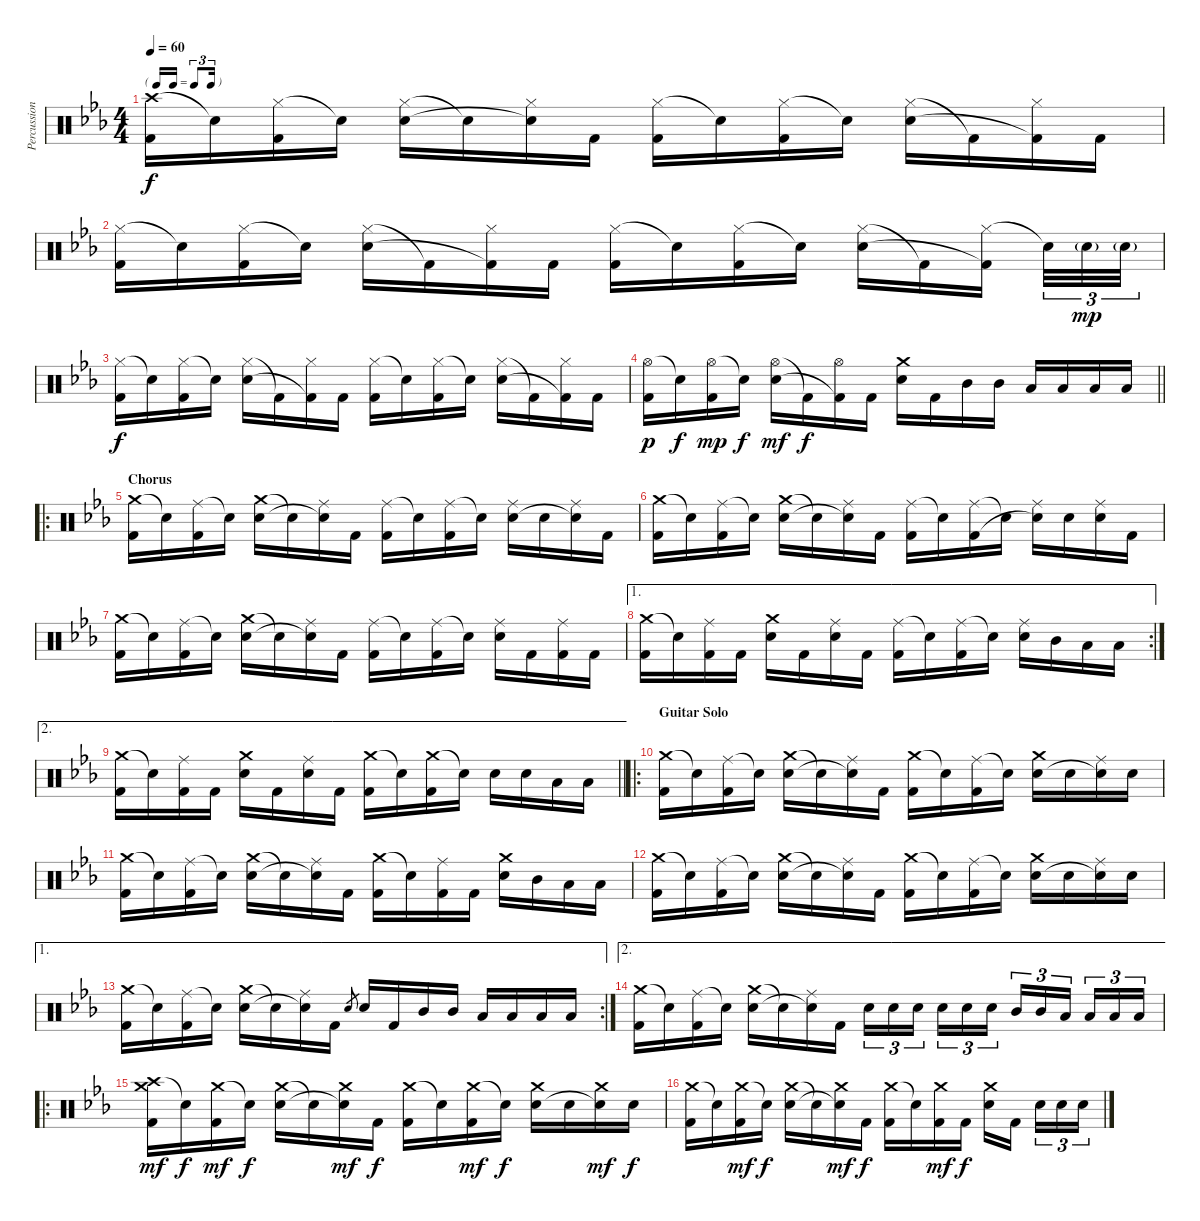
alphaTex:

\track ("Percussioni" "Percussion") {instrument percussion}
\staff {score}
\articulation defaults
\ts (4 4)
\tf triplet16th
\tempo 60
\clef neutral
\ks cminor
("Crash high (hit)" "Kick (hit) 2").16{dy f} "Snare (hit)"{t}.16 ("Hi-Hat (closed)" "Kick (hit) 2").16 "Snare (hit)"{t}.16 ("Hi-Hat (closed)" "Snare (hit) 2").16 "Snare (hit)"{t}.16 ("Hi-Hat (closed)" "Snare (hit)"{t}).16 "Kick (hit) 2".16 ("Hi-Hat (closed)" "Kick (hit) 2").16 "Snare (hit)"{t}.16 ("Hi-Hat (closed)" "Kick (hit) 2").16 "Snare (hit)"{t}.16 ("Hi-Hat (closed)" "Snare (hit) 2").16 "Kick (hit) 2"{t}.16 ("Hi-Hat (closed)" "Kick (hit) 2"{t}).16 "Kick (hit) 2".16 |
("Hi-Hat (closed)" "Kick (hit) 2").16 "Snare (hit)"{t}.16 ("Hi-Hat (closed)" "Kick (hit) 2").16 "Snare (hit)"{t}.16 ("Hi-Hat (closed)" "Snare (hit) 2").16 "Kick (hit) 2"{t}.16 ("Hi-Hat (closed)" "Kick (hit) 2"{t}).16 "Kick (hit) 2".16 ("Hi-Hat (closed)" "Kick (hit) 2").16 "Snare (hit)"{t}.16 ("Hi-Hat (closed)" "Kick (hit) 2").16 "Snare (hit)"{t}.16 ("Hi-Hat (closed)" "Snare (hit) 2").16 "Kick (hit) 2"{t}.16 ("Hi-Hat (closed)" "Kick (hit) 2"{t}).16{beam splitsecondary} "Snare (hit) 2"{t}.32{tu (3 2)} "Snare (hit) 2"{g}.32{tu (3 2) dy mp} "Snare (hit) 2"{g}.32{tu (3 2)} |
("Hi-Hat (closed)" "Kick (hit) 2").16{dy f} "Snare (hit)"{t}.16 ("Hi-Hat (closed)" "Kick (hit) 2").16 "Snare (hit)"{t}.16 ("Hi-Hat (closed)" "Snare (hit) 2").16 "Kick (hit) 2"{t}.16 ("Hi-Hat (closed)" "Kick (hit) 2"{t}).16 "Kick (hit) 2".16 ("Hi-Hat (closed)" "Kick (hit) 2").16 "Snare (hit)"{t}.16 ("Hi-Hat (closed)" "Kick (hit) 2").16 "Snare (hit)"{t}.16 ("Hi-Hat (closed)" "Snare (hit) 2").16 "Kick (hit) 2"{t}.16 ("Hi-Hat (closed)" "Kick (hit) 2"{t}).16 "Kick (hit) 2".16 |
\barLineRight lightlight
("Hi-Hat (open)" "Kick (hit) 2").16{dy p} "Snare (hit)"{t}.16{dy f} ("Hi-Hat (open)" "Kick (hit) 2").16{dy mp} "Snare (hit)"{t}.16{dy f} ("Hi-Hat (open)" "Snare (hit) 2").16{dy mf} "Kick (hit) 2"{t}.16{dy f} ("Hi-Hat (open)" "Kick (hit) 2"{t}).16 "Kick (hit) 2".16 ("Crash medium (hit)" "Snare (hit) 2").16 "Kick (hit) 2".16 "Mid Tom (hit)".16 "Mid Tom (hit)".16 "Low Tom (hit)".16 "Low Tom (hit)".16 "Low Floor Tom (hit)".16 "Low Floor Tom (hit)".16 |
\ro
\section ("" "Chorus")
("Crash medium (hit)" "Kick (hit) 2").16 "Snare (hit)"{t}.16 ("Ride (middle)" "Kick (hit) 2").16 "Snare (hit)"{t}.16 ("Crash medium (hit)" "Snare (hit) 2").16 "Snare (hit)"{t}.16 ("Ride (middle)" "Snare (hit)"{t}).16 "Kick (hit) 2".16 ("Ride (middle)" "Kick (hit) 2").16 "Snare (hit)"{t}.16 ("Ride (middle)" "Kick (hit) 2").16 "Snare (hit)"{t}.16 ("Ride (middle)" "Snare (hit) 2").16 "Snare (hit) 2".16 ("Ride (middle)" "Snare (hit)"{t}).16 "Kick (hit) 2".16 |
("Crash medium (hit)" "Kick (hit) 2").16 "Snare (hit)"{t}.16 ("Ride (middle)" "Kick (hit) 2").16 "Snare (hit)"{t}.16 ("Crash medium (hit)" "Snare (hit) 2").16 "Snare (hit)"{t}.16 ("Ride (middle)" "Snare (hit)"{t}).16 "Kick (hit) 2".16 ("Ride (middle)" "Kick (hit) 2").16 "Snare (hit)"{t}.16 ("Ride (middle)" "Kick (hit) 2").16 "Snare (hit)"{t}.16 ("Ride (middle)" "Snare (hit) 2"{t}).16 "Snare (hit) 2".16 ("Ride (middle)" "Snare (hit) 2").16 "Kick (hit) 2".16 |
("Crash medium (hit)" "Kick (hit) 2").16 "Snare (hit)"{t}.16 ("Ride (middle)" "Kick (hit) 2").16 "Snare (hit)"{t}.16 ("Crash medium (hit)" "Snare (hit) 2").16 "Snare (hit)"{t}.16 ("Ride (middle)" "Snare (hit)"{t}).16 "Kick (hit) 2".16 ("Ride (middle)" "Kick (hit) 2").16 "Snare (hit)"{t}.16 ("Ride (middle)" "Kick (hit) 2").16 "Snare (hit)"{t}.16 ("Ride (middle)" "Snare (hit) 2").16 "Kick (hit) 2".16 ("Ride (middle)" "Kick (hit) 2").16 "Kick (hit) 2".16 |
\ae 1
\rc 2
("Crash medium (hit)" "Kick (hit) 2").16 "Snare (hit)"{t}.16 ("Ride (middle)" "Kick (hit) 2").16 "Kick (hit) 2".16 ("Crash medium (hit)" "Snare (hit) 2").16 "Kick (hit) 2".16 ("Ride (middle)" "Snare (hit) 2").16 "Kick (hit) 2".16 ("Ride (middle)" "Kick (hit) 2").16 "Snare (hit)"{t}.16 ("Ride (middle)" "Kick (hit) 2").16 "Snare (hit)"{t}.16 ("Ride (middle)" "Snare (hit) 2").16 "Mid Tom (hit)".16 "Low Tom (hit)".16 "Low Floor Tom (hit)".16 |
\ae 2
\barLineRight lightlight
("Crash medium (hit)" "Kick (hit) 2").16 "Snare (hit)"{t}.16 ("Ride (middle)" "Kick (hit) 2").16 "Kick (hit) 2".16 ("Crash medium (hit)" "Snare (hit) 2").16 "Kick (hit) 2".16 ("Ride (middle)" "Snare (hit) 2").16 "Kick (hit) 2".16 ("Crash medium (hit)" "Kick (hit) 2").16 "Snare (hit)"{t}.16 ("Crash medium (hit)" "Kick (hit) 2").16 "Snare (hit)"{t}.16 "Snare (hit) 2".16 "Snare (hit) 2".16 "Low Tom (hit)".16 "Low Floor Tom (hit)".16 |
\ro
\section ("" "Guitar Solo")
("Crash medium (hit)" "Kick (hit) 2").16 "Snare (hit)"{t}.16 ("Ride (middle)" "Kick (hit) 2").16 "Snare (hit)"{t}.16 ("Crash medium (hit)" "Snare (hit) 2").16 "Snare (hit)"{t}.16 ("Ride (middle)" "Snare (hit)"{t}).16 "Kick (hit) 2".16 ("Crash medium (hit)" "Kick (hit) 2").16 "Snare (hit)"{t}.16 ("Ride (middle)" "Kick (hit) 2").16 "Snare (hit)"{t}.16 ("Crash medium (hit)" "Snare (hit) 2").16 "Snare (hit) 2".16 ("Ride (middle)" "Snare (hit)"{t}).16 "Snare (hit) 2".16 |
("Crash medium (hit)" "Kick (hit) 2").16 "Snare (hit)"{t}.16 ("Ride (middle)" "Kick (hit) 2").16 "Snare (hit)"{t}.16 ("Crash medium (hit)" "Snare (hit) 2").16 "Snare (hit)"{t}.16 ("Ride (middle)" "Snare (hit)"{t}).16 "Kick (hit) 2".16 ("Crash medium (hit)" "Kick (hit) 2").16 "Snare (hit)"{t}.16 ("Ride (middle)" "Kick (hit) 2").16 "Kick (hit) 2".16 ("Crash medium (hit)" "Snare (hit) 2").16 "Mid Tom (hit)".16 "Low Tom (hit)".16 "Low Floor Tom (hit)".16 |
("Crash medium (hit)" "Kick (hit) 2").16 "Snare (hit)"{t}.16 ("Ride (middle)" "Kick (hit) 2").16 "Snare (hit)"{t}.16 ("Crash medium (hit)" "Snare (hit) 2").16 "Snare (hit)"{t}.16 ("Ride (middle)" "Snare (hit)"{t}).16 "Kick (hit) 2".16 ("Crash medium (hit)" "Kick (hit) 2").16 "Snare (hit)"{t}.16 ("Ride (middle)" "Kick (hit) 2").16 "Snare (hit)"{t}.16 ("Crash medium (hit)" "Snare (hit) 2").16 "Snare (hit) 2".16 ("Ride (middle)" "Snare (hit)"{t}).16 "Snare (hit) 2".16 |
\ae 1
\rc 2
("Crash medium (hit)" "Kick (hit) 2").16 "Snare (hit)"{t}.16 ("Ride (middle)" "Kick (hit) 2").16 "Snare (hit)"{t}.16 ("Crash medium (hit)" "Snare (hit) 2").16 "Snare (hit)"{t}.16 ("Ride (middle)" "Snare (hit)"{t}).16 "Kick (hit) 2".16 "Snare (hit) 2".8{gr} "Snare (hit) 2".16 "Kick (hit) 2".16 "Mid Tom (hit)".16 "Mid Tom (hit)".16 "Low Tom (hit)".16 "Low Tom (hit)".16 "Low Floor Tom (hit)".16 "Low Floor Tom (hit)".16 |
\ae 2
("Crash medium (hit)" "Kick (hit) 2").16 "Snare (hit)"{t}.16 ("Ride (middle)" "Kick (hit) 2").16 "Snare (hit)"{t}.16 ("Crash medium (hit)" "Snare (hit) 2").16 "Snare (hit)"{t}.16 ("Ride (middle)" "Snare (hit)"{t}).16 "Kick (hit) 2".16 "Snare (hit) 2".16{tu (3 2)} "Snare (hit) 2".16{tu (3 2)} "Snare (hit) 2".16{tu (3 2) beam splitsecondary} "Snare (hit) 2".16{tu (3 2)} "Snare (hit) 2".16{tu (3 2)} "Snare (hit) 2".16{tu (3 2)} "Mid Tom (hit)".16{tu (3 2)} "Mid Tom (hit)".16{tu (3 2)} "Low Tom (hit)".16{tu (3 2) beam splitsecondary} "Low Tom (hit)".16{tu (3 2)} "Low Floor Tom (hit)".16{tu (3 2)} "Low Floor Tom (hit)".16{tu (3 2)} |
\ro
("Crash high (hit)" "Crash medium (hit)" "Kick (hit) 2").16{dy mf} "Snare (hit)"{t}.16{dy f} ("Crash medium (hit)" "Kick (hit) 2").16{dy mf} "Snare (hit)"{t}.16{dy f} ("Crash medium (hit)" "Snare (hit) 2").16 "Snare (hit)"{t}.16 ("Crash medium (hit)" "Snare (hit)"{t}).16{dy mf} "Kick (hit) 2".16{dy f} ("Crash medium (hit)" "Kick (hit) 2").16 "Snare (hit)"{t}.16 ("Crash medium (hit)" "Kick (hit) 2").16{dy mf} "Snare (hit)"{t}.16{dy f} ("Crash medium (hit)" "Snare (hit) 2").16 "Snare (hit) 2".16 ("Crash medium (hit)" "Snare (hit)"{t}).16{dy mf} "Snare (hit) 2".16{dy f} |
("Crash medium (hit)" "Kick (hit) 2").16 "Snare (hit)"{t}.16 ("Crash medium (hit)" "Kick (hit) 2").16{dy mf} "Snare (hit)"{t}.16{dy f} ("Crash medium (hit)" "Snare (hit) 2").16 "Snare (hit)"{t}.16 ("Crash medium (hit)" "Snare (hit)"{t}).16{dy mf} "Kick (hit) 2".16{dy f} ("Crash medium (hit)" "Kick (hit) 2").16 "Snare (hit)"{t}.16 ("Crash medium (hit)" "Kick (hit) 2").16{dy mf} "Kick (hit) 2".16{dy f} ("Crash medium (hit)" "Snare (hit) 2").16 "Kick (hit) 2".16{beam splitsecondary} "Snare (hit) 2".16{tu (3 2)} "Snare (hit) 2".16{tu (3 2)} "Snare (hit) 2".16{tu (3 2)}
